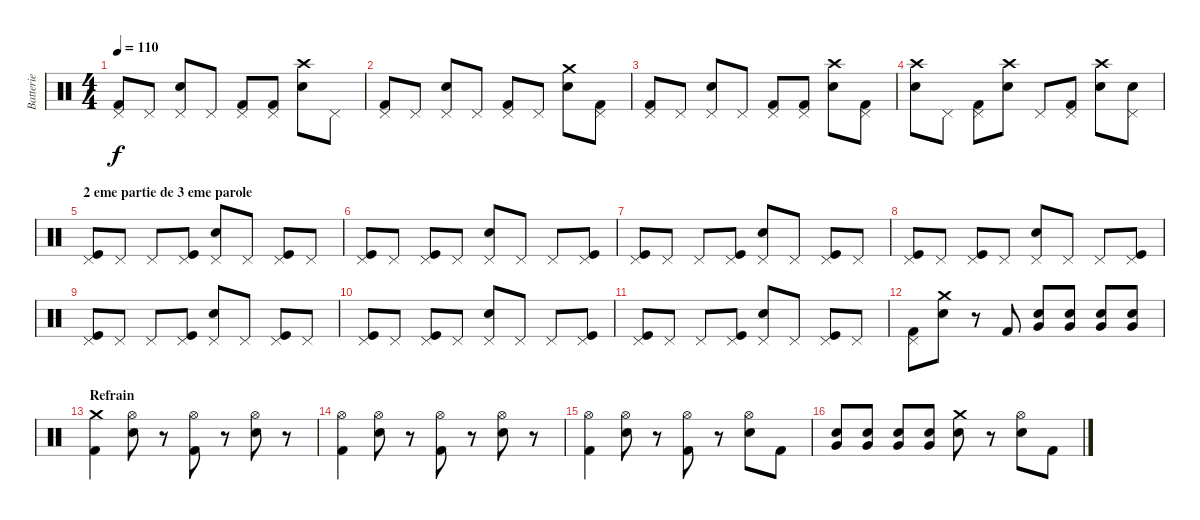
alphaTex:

\track ("Batterie" "Batterie") {instrument percussion}
\staff {score}
\articulation defaults
\ts (4 4)
\tempo 110
\clef neutral
\ks c
("Pedal Hi-Hat (hit)" "Kick (hit) 2").8{dy f} "Pedal Hi-Hat (hit)".8 ("Pedal Hi-Hat (hit)" "Electric Snare (hit)").8 "Pedal Hi-Hat (hit)".8 ("Pedal Hi-Hat (hit)" "Kick (hit) 2").8 ("Pedal Hi-Hat (hit)" "Kick (hit) 2").8 ("Crash high (hit)" "Electric Snare (hit)").8 "Pedal Hi-Hat (hit)".8 |
("Pedal Hi-Hat (hit)" "Kick (hit) 2").8 "Pedal Hi-Hat (hit)".8 ("Pedal Hi-Hat (hit)" "Electric Snare (hit)").8 "Pedal Hi-Hat (hit)".8 ("Pedal Hi-Hat (hit)" "Kick (hit) 2").8 "Pedal Hi-Hat (hit)".8 ("Crash medium (hit)" "Electric Snare (hit)").8 ("Pedal Hi-Hat (hit)" "Kick (hit) 2").8 |
("Pedal Hi-Hat (hit)" "Kick (hit) 2").8 "Pedal Hi-Hat (hit)".8 ("Pedal Hi-Hat (hit)" "Electric Snare (hit)").8 "Pedal Hi-Hat (hit)".8 ("Pedal Hi-Hat (hit)" "Kick (hit) 2").8 ("Pedal Hi-Hat (hit)" "Kick (hit) 2").8 ("Crash high (hit)" "Electric Snare (hit)").8 ("Pedal Hi-Hat (hit)" "Kick (hit) 2").8 |
("Crash high (hit)" "Electric Snare (hit)").8 "Pedal Hi-Hat (hit)".8 ("Pedal Hi-Hat (hit)" "Kick (hit) 2").8 ("Crash high (hit)" "Electric Snare (hit)").8 "Pedal Hi-Hat (hit)".8 ("Pedal Hi-Hat (hit)" "Kick (hit) 2").8 ("Crash high (hit)" "Electric Snare (hit)").8 ("Pedal Hi-Hat (hit)" "Electric Snare (hit)").8 |
\section ("" "2 eme partie de 3 eme parole")
("Pedal Hi-Hat (hit)" "Kick (hit)").8 "Pedal Hi-Hat (hit)".8 "Pedal Hi-Hat (hit)".8 ("Pedal Hi-Hat (hit)" "Kick (hit)").8 ("Pedal Hi-Hat (hit)" "Electric Snare (hit)").8 "Pedal Hi-Hat (hit)".8 ("Pedal Hi-Hat (hit)" "Kick (hit)").8 "Pedal Hi-Hat (hit)".8 |
("Pedal Hi-Hat (hit)" "Kick (hit)").8 "Pedal Hi-Hat (hit)".8 ("Pedal Hi-Hat (hit)" "Kick (hit)").8 "Pedal Hi-Hat (hit)".8 ("Pedal Hi-Hat (hit)" "Electric Snare (hit)").8 "Pedal Hi-Hat (hit)".8 "Pedal Hi-Hat (hit)".8 ("Pedal Hi-Hat (hit)" "Kick (hit)").8 |
("Pedal Hi-Hat (hit)" "Kick (hit)").8 "Pedal Hi-Hat (hit)".8 "Pedal Hi-Hat (hit)".8 ("Pedal Hi-Hat (hit)" "Kick (hit)").8 ("Pedal Hi-Hat (hit)" "Electric Snare (hit)").8 "Pedal Hi-Hat (hit)".8 ("Pedal Hi-Hat (hit)" "Kick (hit)").8 "Pedal Hi-Hat (hit)".8 |
("Pedal Hi-Hat (hit)" "Kick (hit)").8 "Pedal Hi-Hat (hit)".8 ("Pedal Hi-Hat (hit)" "Kick (hit)").8 "Pedal Hi-Hat (hit)".8 ("Pedal Hi-Hat (hit)" "Electric Snare (hit)").8 "Pedal Hi-Hat (hit)".8 "Pedal Hi-Hat (hit)".8 ("Pedal Hi-Hat (hit)" "Kick (hit)").8 |
("Pedal Hi-Hat (hit)" "Kick (hit)").8 "Pedal Hi-Hat (hit)".8 "Pedal Hi-Hat (hit)".8 ("Pedal Hi-Hat (hit)" "Kick (hit)").8 ("Pedal Hi-Hat (hit)" "Electric Snare (hit)").8 "Pedal Hi-Hat (hit)".8 ("Pedal Hi-Hat (hit)" "Kick (hit)").8 "Pedal Hi-Hat (hit)".8 |
("Pedal Hi-Hat (hit)" "Kick (hit)").8 "Pedal Hi-Hat (hit)".8 ("Pedal Hi-Hat (hit)" "Kick (hit)").8 "Pedal Hi-Hat (hit)".8 ("Pedal Hi-Hat (hit)" "Electric Snare (hit)").8 "Pedal Hi-Hat (hit)".8 "Pedal Hi-Hat (hit)".8 ("Pedal Hi-Hat (hit)" "Kick (hit)").8 |
("Pedal Hi-Hat (hit)" "Kick (hit)").8 "Pedal Hi-Hat (hit)".8 "Pedal Hi-Hat (hit)".8 ("Pedal Hi-Hat (hit)" "Kick (hit)").8 ("Pedal Hi-Hat (hit)" "Electric Snare (hit)").8 "Pedal Hi-Hat (hit)".8 ("Pedal Hi-Hat (hit)" "Kick (hit)").8 "Pedal Hi-Hat (hit)".8 |
("Pedal Hi-Hat (hit)" "Kick (hit) 2").8 ("Crash medium (hit)" "Electric Snare (hit)").8 r.8 "Kick (hit) 2".8 ("Very Low Tom (hit)" "Electric Snare (hit)").8 ("Very Low Tom (hit)" "Electric Snare (hit)").8 ("Very Low Tom (hit)" "Electric Snare (hit)").8 ("Very Low Tom (hit)" "Electric Snare (hit)").8 |
\section ("" "Refrain")
("Crash medium (hit)" "Kick (hit) 2").4 ("Hi-Hat (open)" "Electric Snare (hit)").8 r.8 ("Hi-Hat (open)" "Kick (hit) 2").8 r.8 ("Hi-Hat (open)" "Electric Snare (hit)").8 r.8 |
("Hi-Hat (open)" "Kick (hit) 2").4 ("Hi-Hat (open)" "Electric Snare (hit)").8 r.8 ("Hi-Hat (open)" "Kick (hit) 2").8 r.8 ("Hi-Hat (open)" "Electric Snare (hit)").8 r.8 |
("Hi-Hat (open)" "Kick (hit) 2").4 ("Hi-Hat (open)" "Electric Snare (hit)").8 r.8 ("Hi-Hat (open)" "Kick (hit) 2").8 r.8 ("Hi-Hat (open)" "Electric Snare (hit)").8 "Kick (hit) 2".8 |
("Very Low Tom (hit)" "Electric Snare (hit)").8 ("Very Low Tom (hit)" "Electric Snare (hit)").8 ("Very Low Tom (hit)" "Electric Snare (hit)").8 ("Very Low Tom (hit)" "Electric Snare (hit)").8 ("Crash medium (hit)" "Electric Snare (hit)").8 r.8 ("Hi-Hat (open)" "Electric Snare (hit)").8 "Kick (hit) 2".8
